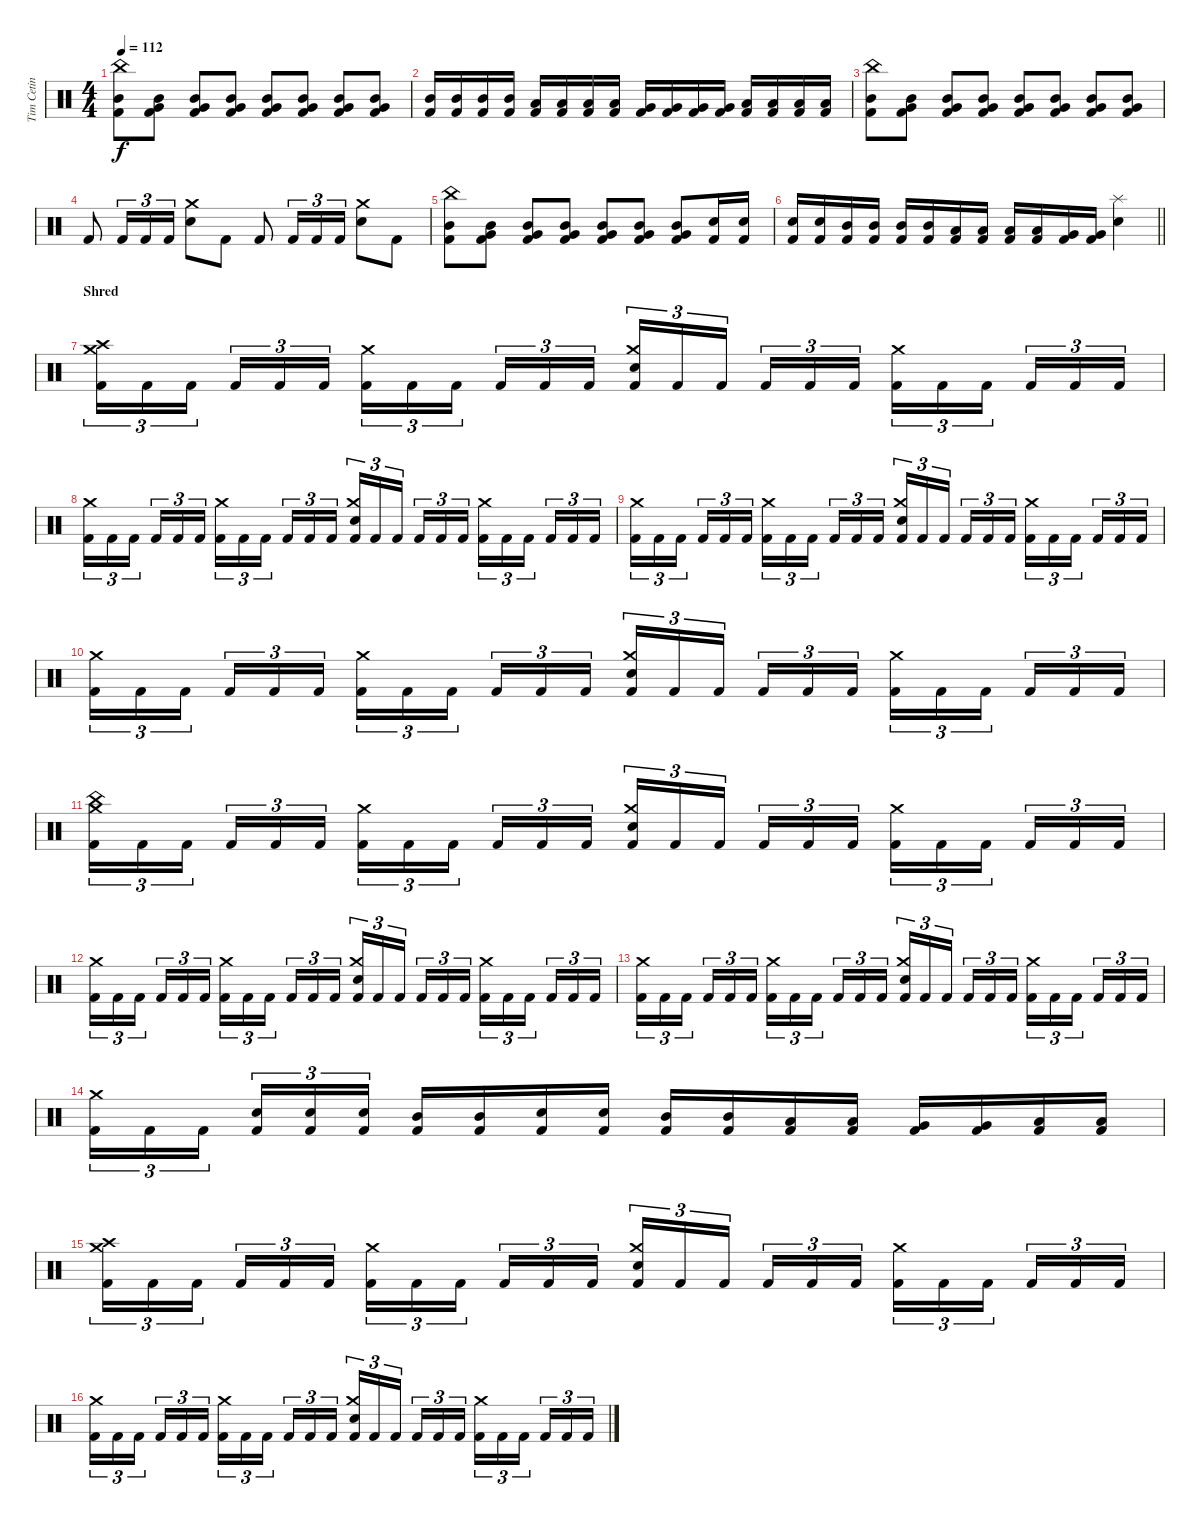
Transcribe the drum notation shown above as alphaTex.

\track ("Tim Cetin" "Tim Cetin") {instrument percussion}
\staff {score}
\articulation defaults
\ts (4 4)
\tempo 112
\clef neutral
\ks c
("China (hit)" "Mid Tom (hit)" "Kick (hit) 2").8{dy f} ("Mid Tom (hit)" "Very Low Tom (hit)" "Kick (hit) 2").8 ("Mid Tom (hit)" "Very Low Tom (hit)" "Kick (hit) 2").8 ("Mid Tom (hit)" "Very Low Tom (hit)" "Kick (hit) 2").8 ("Mid Tom (hit)" "Very Low Tom (hit)" "Kick (hit) 2").8 ("Mid Tom (hit)" "Very Low Tom (hit)" "Kick (hit) 2").8 ("Mid Tom (hit)" "Very Low Tom (hit)" "Kick (hit) 2").8 ("Mid Tom (hit)" "Very Low Tom (hit)" "Kick (hit) 2").8 |
("Mid Tom (hit)" "Kick (hit) 2").16 ("Mid Tom (hit)" "Kick (hit) 2").16 ("Mid Tom (hit)" "Kick (hit) 2").16 ("Mid Tom (hit)" "Kick (hit) 2").16 ("Low Tom (hit)" "Kick (hit) 2").16 ("Low Tom (hit)" "Kick (hit) 2").16 ("Low Tom (hit)" "Kick (hit) 2").16 ("Low Tom (hit)" "Kick (hit) 2").16 ("Very Low Tom (hit)" "Kick (hit) 2").16 ("Very Low Tom (hit)" "Kick (hit) 2").16 ("Very Low Tom (hit)" "Kick (hit) 2").16 ("Very Low Tom (hit)" "Kick (hit) 2").16 ("Low Floor Tom (hit)" "Kick (hit) 2").16 ("Low Floor Tom (hit)" "Kick (hit) 2").16 ("Low Floor Tom (hit)" "Kick (hit) 2").16 ("Low Floor Tom (hit)" "Kick (hit) 2").16 |
("China (hit)" "Mid Tom (hit)" "Kick (hit) 2").8 ("Mid Tom (hit)" "Very Low Tom (hit)" "Kick (hit) 2").8 ("Mid Tom (hit)" "Very Low Tom (hit)" "Kick (hit) 2").8 ("Mid Tom (hit)" "Very Low Tom (hit)" "Kick (hit) 2").8 ("Mid Tom (hit)" "Very Low Tom (hit)" "Kick (hit) 2").8 ("Mid Tom (hit)" "Very Low Tom (hit)" "Kick (hit) 2").8 ("Mid Tom (hit)" "Very Low Tom (hit)" "Kick (hit) 2").8 ("Mid Tom (hit)" "Very Low Tom (hit)" "Kick (hit) 2").8 |
"Kick (hit) 2".8 "Kick (hit) 2".16{tu (3 2)} "Kick (hit) 2".16{tu (3 2)} "Kick (hit) 2".16{tu (3 2)} ("Crash medium (hit)" "Snare (hit) 2").8 "Kick (hit) 2".8 "Kick (hit) 2".8 "Kick (hit) 2".16{tu (3 2)} "Kick (hit) 2".16{tu (3 2)} "Kick (hit) 2".16{tu (3 2)} ("Crash medium (hit)" "Snare (hit) 2").8 "Kick (hit) 2".8 |
("China (hit)" "Mid Tom (hit)" "Kick (hit) 2").8 ("Mid Tom (hit)" "Very Low Tom (hit)" "Kick (hit) 2").8 ("Mid Tom (hit)" "Very Low Tom (hit)" "Kick (hit) 2").8 ("Mid Tom (hit)" "Very Low Tom (hit)" "Kick (hit) 2").8 ("Mid Tom (hit)" "Very Low Tom (hit)" "Kick (hit) 2").8 ("Mid Tom (hit)" "Very Low Tom (hit)" "Kick (hit) 2").8 ("Mid Tom (hit)" "Very Low Tom (hit)" "Kick (hit) 2").8 ("Snare (hit) 2" "Kick (hit) 2").16 ("Snare (hit) 2" "Kick (hit) 2").16 |
\barLineRight lightlight
("Snare (hit) 2" "Kick (hit) 2").16 ("Snare (hit) 2" "Kick (hit) 2").16 ("Mid Tom (hit)" "Kick (hit) 2").16 ("Mid Tom (hit)" "Kick (hit) 2").16 ("Mid Tom (hit)" "Kick (hit) 2").16 ("Mid Tom (hit)" "Kick (hit) 2").16 ("Low Tom (hit)" "Kick (hit) 2").16 ("Low Tom (hit)" "Kick (hit) 2").16 ("Low Tom (hit)" "Kick (hit) 2").16 ("Low Tom (hit)" "Kick (hit) 2").16 ("Very Low Tom (hit)" "Kick (hit) 2").16 ("Very Low Tom (hit)" "Kick (hit) 2").16 ("Splash (hit)" "Snare (hit) 2").4 |
\section ("" "Shred")
("Crash high (hit)" "Crash medium (hit)" "Kick (hit) 2").16{tu (3 2)} "Kick (hit) 2".16{tu (3 2)} "Kick (hit) 2".16{tu (3 2) beam splitsecondary} "Kick (hit) 2".16{tu (3 2)} "Kick (hit) 2".16{tu (3 2)} "Kick (hit) 2".16{tu (3 2)} ("Crash medium (hit)" "Kick (hit) 2").16{tu (3 2)} "Kick (hit) 2".16{tu (3 2)} "Kick (hit) 2".16{tu (3 2) beam splitsecondary} "Kick (hit) 2".16{tu (3 2)} "Kick (hit) 2".16{tu (3 2)} "Kick (hit) 2".16{tu (3 2)} ("Crash medium (hit)" "Snare (hit) 2" "Kick (hit) 2").16{tu (3 2)} "Kick (hit) 2".16{tu (3 2)} "Kick (hit) 2".16{tu (3 2) beam splitsecondary} "Kick (hit) 2".16{tu (3 2)} "Kick (hit) 2".16{tu (3 2)} "Kick (hit) 2".16{tu (3 2)} ("Crash medium (hit)" "Kick (hit) 2").16{tu (3 2)} "Kick (hit) 2".16{tu (3 2)} "Kick (hit) 2".16{tu (3 2) beam splitsecondary} "Kick (hit) 2".16{tu (3 2)} "Kick (hit) 2".16{tu (3 2)} "Kick (hit) 2".16{tu (3 2)} |
("Crash medium (hit)" "Kick (hit) 2").16{tu (3 2)} "Kick (hit) 2".16{tu (3 2)} "Kick (hit) 2".16{tu (3 2) beam splitsecondary} "Kick (hit) 2".16{tu (3 2)} "Kick (hit) 2".16{tu (3 2)} "Kick (hit) 2".16{tu (3 2)} ("Crash medium (hit)" "Kick (hit) 2").16{tu (3 2)} "Kick (hit) 2".16{tu (3 2)} "Kick (hit) 2".16{tu (3 2) beam splitsecondary} "Kick (hit) 2".16{tu (3 2)} "Kick (hit) 2".16{tu (3 2)} "Kick (hit) 2".16{tu (3 2)} ("Crash medium (hit)" "Snare (hit) 2" "Kick (hit) 2").16{tu (3 2)} "Kick (hit) 2".16{tu (3 2)} "Kick (hit) 2".16{tu (3 2) beam splitsecondary} "Kick (hit) 2".16{tu (3 2)} "Kick (hit) 2".16{tu (3 2)} "Kick (hit) 2".16{tu (3 2)} ("Crash medium (hit)" "Kick (hit) 2").16{tu (3 2)} "Kick (hit) 2".16{tu (3 2)} "Kick (hit) 2".16{tu (3 2) beam splitsecondary} "Kick (hit) 2".16{tu (3 2)} "Kick (hit) 2".16{tu (3 2)} "Kick (hit) 2".16{tu (3 2)} |
("Crash medium (hit)" "Kick (hit) 2").16{tu (3 2)} "Kick (hit) 2".16{tu (3 2)} "Kick (hit) 2".16{tu (3 2) beam splitsecondary} "Kick (hit) 2".16{tu (3 2)} "Kick (hit) 2".16{tu (3 2)} "Kick (hit) 2".16{tu (3 2)} ("Crash medium (hit)" "Kick (hit) 2").16{tu (3 2)} "Kick (hit) 2".16{tu (3 2)} "Kick (hit) 2".16{tu (3 2) beam splitsecondary} "Kick (hit) 2".16{tu (3 2)} "Kick (hit) 2".16{tu (3 2)} "Kick (hit) 2".16{tu (3 2)} ("Crash medium (hit)" "Snare (hit) 2" "Kick (hit) 2").16{tu (3 2)} "Kick (hit) 2".16{tu (3 2)} "Kick (hit) 2".16{tu (3 2) beam splitsecondary} "Kick (hit) 2".16{tu (3 2)} "Kick (hit) 2".16{tu (3 2)} "Kick (hit) 2".16{tu (3 2)} ("Crash medium (hit)" "Kick (hit) 2").16{tu (3 2)} "Kick (hit) 2".16{tu (3 2)} "Kick (hit) 2".16{tu (3 2) beam splitsecondary} "Kick (hit) 2".16{tu (3 2)} "Kick (hit) 2".16{tu (3 2)} "Kick (hit) 2".16{tu (3 2)} |
("Crash medium (hit)" "Kick (hit) 2").16{tu (3 2)} "Kick (hit) 2".16{tu (3 2)} "Kick (hit) 2".16{tu (3 2) beam splitsecondary} "Kick (hit) 2".16{tu (3 2)} "Kick (hit) 2".16{tu (3 2)} "Kick (hit) 2".16{tu (3 2)} ("Crash medium (hit)" "Kick (hit) 2").16{tu (3 2)} "Kick (hit) 2".16{tu (3 2)} "Kick (hit) 2".16{tu (3 2) beam splitsecondary} "Kick (hit) 2".16{tu (3 2)} "Kick (hit) 2".16{tu (3 2)} "Kick (hit) 2".16{tu (3 2)} ("Crash medium (hit)" "Snare (hit) 2" "Kick (hit) 2").16{tu (3 2)} "Kick (hit) 2".16{tu (3 2)} "Kick (hit) 2".16{tu (3 2) beam splitsecondary} "Kick (hit) 2".16{tu (3 2)} "Kick (hit) 2".16{tu (3 2)} "Kick (hit) 2".16{tu (3 2)} ("Crash medium (hit)" "Kick (hit) 2").16{tu (3 2)} "Kick (hit) 2".16{tu (3 2)} "Kick (hit) 2".16{tu (3 2) beam splitsecondary} "Kick (hit) 2".16{tu (3 2)} "Kick (hit) 2".16{tu (3 2)} "Kick (hit) 2".16{tu (3 2)} |
("China (hit)" "Crash medium (hit)" "Kick (hit) 2").16{tu (3 2)} "Kick (hit) 2".16{tu (3 2)} "Kick (hit) 2".16{tu (3 2) beam splitsecondary} "Kick (hit) 2".16{tu (3 2)} "Kick (hit) 2".16{tu (3 2)} "Kick (hit) 2".16{tu (3 2)} ("Crash medium (hit)" "Kick (hit) 2").16{tu (3 2)} "Kick (hit) 2".16{tu (3 2)} "Kick (hit) 2".16{tu (3 2) beam splitsecondary} "Kick (hit) 2".16{tu (3 2)} "Kick (hit) 2".16{tu (3 2)} "Kick (hit) 2".16{tu (3 2)} ("Crash medium (hit)" "Snare (hit) 2" "Kick (hit) 2").16{tu (3 2)} "Kick (hit) 2".16{tu (3 2)} "Kick (hit) 2".16{tu (3 2) beam splitsecondary} "Kick (hit) 2".16{tu (3 2)} "Kick (hit) 2".16{tu (3 2)} "Kick (hit) 2".16{tu (3 2)} ("Crash medium (hit)" "Kick (hit) 2").16{tu (3 2)} "Kick (hit) 2".16{tu (3 2)} "Kick (hit) 2".16{tu (3 2) beam splitsecondary} "Kick (hit) 2".16{tu (3 2)} "Kick (hit) 2".16{tu (3 2)} "Kick (hit) 2".16{tu (3 2)} |
("Crash medium (hit)" "Kick (hit) 2").16{tu (3 2)} "Kick (hit) 2".16{tu (3 2)} "Kick (hit) 2".16{tu (3 2) beam splitsecondary} "Kick (hit) 2".16{tu (3 2)} "Kick (hit) 2".16{tu (3 2)} "Kick (hit) 2".16{tu (3 2)} ("Crash medium (hit)" "Kick (hit) 2").16{tu (3 2)} "Kick (hit) 2".16{tu (3 2)} "Kick (hit) 2".16{tu (3 2) beam splitsecondary} "Kick (hit) 2".16{tu (3 2)} "Kick (hit) 2".16{tu (3 2)} "Kick (hit) 2".16{tu (3 2)} ("Crash medium (hit)" "Snare (hit) 2" "Kick (hit) 2").16{tu (3 2)} "Kick (hit) 2".16{tu (3 2)} "Kick (hit) 2".16{tu (3 2) beam splitsecondary} "Kick (hit) 2".16{tu (3 2)} "Kick (hit) 2".16{tu (3 2)} "Kick (hit) 2".16{tu (3 2)} ("Crash medium (hit)" "Kick (hit) 2").16{tu (3 2)} "Kick (hit) 2".16{tu (3 2)} "Kick (hit) 2".16{tu (3 2) beam splitsecondary} "Kick (hit) 2".16{tu (3 2)} "Kick (hit) 2".16{tu (3 2)} "Kick (hit) 2".16{tu (3 2)} |
("Crash medium (hit)" "Kick (hit) 2").16{tu (3 2)} "Kick (hit) 2".16{tu (3 2)} "Kick (hit) 2".16{tu (3 2) beam splitsecondary} "Kick (hit) 2".16{tu (3 2)} "Kick (hit) 2".16{tu (3 2)} "Kick (hit) 2".16{tu (3 2)} ("Crash medium (hit)" "Kick (hit) 2").16{tu (3 2)} "Kick (hit) 2".16{tu (3 2)} "Kick (hit) 2".16{tu (3 2) beam splitsecondary} "Kick (hit) 2".16{tu (3 2)} "Kick (hit) 2".16{tu (3 2)} "Kick (hit) 2".16{tu (3 2)} ("Crash medium (hit)" "Snare (hit) 2" "Kick (hit) 2").16{tu (3 2)} "Kick (hit) 2".16{tu (3 2)} "Kick (hit) 2".16{tu (3 2) beam splitsecondary} "Kick (hit) 2".16{tu (3 2)} "Kick (hit) 2".16{tu (3 2)} "Kick (hit) 2".16{tu (3 2)} ("Crash medium (hit)" "Kick (hit) 2").16{tu (3 2)} "Kick (hit) 2".16{tu (3 2)} "Kick (hit) 2".16{tu (3 2) beam splitsecondary} "Kick (hit) 2".16{tu (3 2)} "Kick (hit) 2".16{tu (3 2)} "Kick (hit) 2".16{tu (3 2)} |
("Crash medium (hit)" "Kick (hit) 2").16{tu (3 2)} "Kick (hit) 2".16{tu (3 2)} "Kick (hit) 2".16{tu (3 2) beam splitsecondary} ("Snare (hit) 2" "Kick (hit) 2").16{tu (3 2)} ("Snare (hit) 2" "Kick (hit) 2").16{tu (3 2)} ("Snare (hit) 2" "Kick (hit) 2").16{tu (3 2)} ("Mid Tom (hit)" "Kick (hit) 2").16 ("Mid Tom (hit)" "Kick (hit) 2").16 ("Snare (hit) 2" "Kick (hit) 2").16 ("Snare (hit) 2" "Kick (hit) 2").16 ("Mid Tom (hit)" "Kick (hit) 2").16 ("Mid Tom (hit)" "Kick (hit) 2").16 ("Low Tom (hit)" "Kick (hit) 2").16 ("Low Tom (hit)" "Kick (hit) 2").16 ("Very Low Tom (hit)" "Kick (hit) 2").16 ("Very Low Tom (hit)" "Kick (hit) 2").16 ("Low Floor Tom (hit)" "Kick (hit) 2").16 ("Low Floor Tom (hit)" "Kick (hit) 2").16 |
("Crash high (hit)" "Crash medium (hit)" "Kick (hit) 2").16{tu (3 2)} "Kick (hit) 2".16{tu (3 2)} "Kick (hit) 2".16{tu (3 2) beam splitsecondary} "Kick (hit) 2".16{tu (3 2)} "Kick (hit) 2".16{tu (3 2)} "Kick (hit) 2".16{tu (3 2)} ("Crash medium (hit)" "Kick (hit) 2").16{tu (3 2)} "Kick (hit) 2".16{tu (3 2)} "Kick (hit) 2".16{tu (3 2) beam splitsecondary} "Kick (hit) 2".16{tu (3 2)} "Kick (hit) 2".16{tu (3 2)} "Kick (hit) 2".16{tu (3 2)} ("Crash medium (hit)" "Snare (hit) 2" "Kick (hit) 2").16{tu (3 2)} "Kick (hit) 2".16{tu (3 2)} "Kick (hit) 2".16{tu (3 2) beam splitsecondary} "Kick (hit) 2".16{tu (3 2)} "Kick (hit) 2".16{tu (3 2)} "Kick (hit) 2".16{tu (3 2)} ("Crash medium (hit)" "Kick (hit) 2").16{tu (3 2)} "Kick (hit) 2".16{tu (3 2)} "Kick (hit) 2".16{tu (3 2) beam splitsecondary} "Kick (hit) 2".16{tu (3 2)} "Kick (hit) 2".16{tu (3 2)} "Kick (hit) 2".16{tu (3 2)} |
("Crash medium (hit)" "Kick (hit) 2").16{tu (3 2)} "Kick (hit) 2".16{tu (3 2)} "Kick (hit) 2".16{tu (3 2) beam splitsecondary} "Kick (hit) 2".16{tu (3 2)} "Kick (hit) 2".16{tu (3 2)} "Kick (hit) 2".16{tu (3 2)} ("Crash medium (hit)" "Kick (hit) 2").16{tu (3 2)} "Kick (hit) 2".16{tu (3 2)} "Kick (hit) 2".16{tu (3 2) beam splitsecondary} "Kick (hit) 2".16{tu (3 2)} "Kick (hit) 2".16{tu (3 2)} "Kick (hit) 2".16{tu (3 2)} ("Crash medium (hit)" "Snare (hit) 2" "Kick (hit) 2").16{tu (3 2)} "Kick (hit) 2".16{tu (3 2)} "Kick (hit) 2".16{tu (3 2) beam splitsecondary} "Kick (hit) 2".16{tu (3 2)} "Kick (hit) 2".16{tu (3 2)} "Kick (hit) 2".16{tu (3 2)} ("Crash medium (hit)" "Kick (hit) 2").16{tu (3 2)} "Kick (hit) 2".16{tu (3 2)} "Kick (hit) 2".16{tu (3 2) beam splitsecondary} "Kick (hit) 2".16{tu (3 2)} "Kick (hit) 2".16{tu (3 2)} "Kick (hit) 2".16{tu (3 2)}
